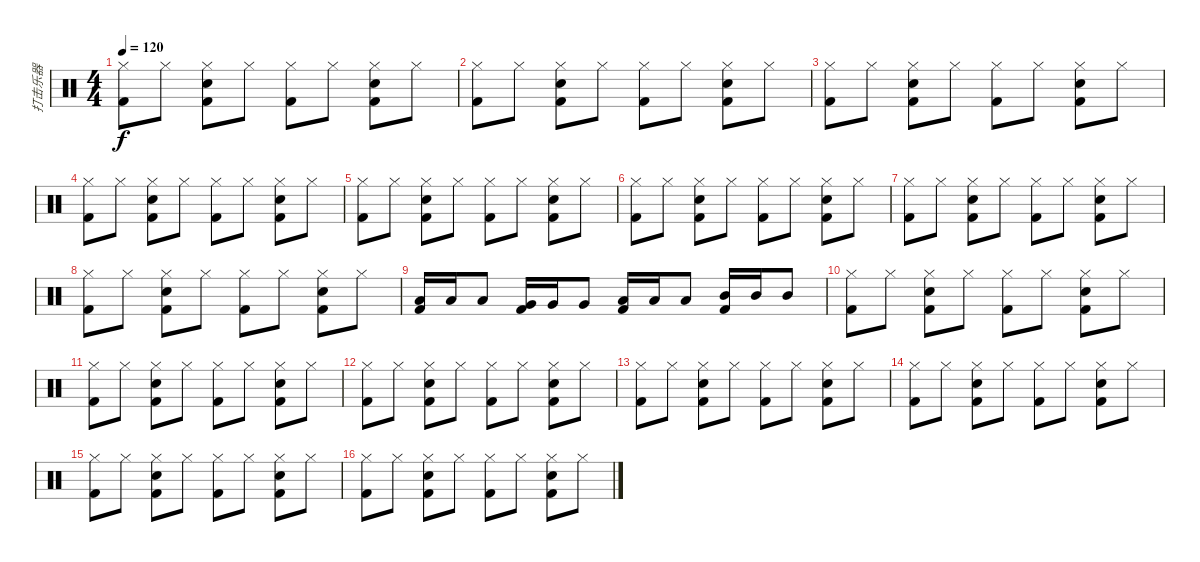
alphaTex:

\track ("打击乐器" "打击乐器") {instrument percussion}
\staff {score}
\articulation defaults
\ts (4 4)
\tempo 120
\clef neutral
\ks c
("Hi-Hat (closed)" "Kick (hit) 2").8{dy f} "Hi-Hat (closed)".8 ("Hi-Hat (closed)" "Snare (hit) 2" "Kick (hit) 2").8 "Hi-Hat (closed)".8 ("Hi-Hat (closed)" "Kick (hit) 2").8 "Hi-Hat (closed)".8 ("Hi-Hat (closed)" "Snare (hit) 2" "Kick (hit) 2").8 "Hi-Hat (closed)".8 |
("Hi-Hat (closed)" "Kick (hit) 2").8 "Hi-Hat (closed)".8 ("Hi-Hat (closed)" "Snare (hit) 2" "Kick (hit) 2").8 "Hi-Hat (closed)".8 ("Hi-Hat (closed)" "Kick (hit) 2").8 "Hi-Hat (closed)".8 ("Hi-Hat (closed)" "Snare (hit) 2" "Kick (hit) 2").8 "Hi-Hat (closed)".8 |
("Hi-Hat (closed)" "Kick (hit) 2").8 "Hi-Hat (closed)".8 ("Hi-Hat (closed)" "Snare (hit) 2" "Kick (hit) 2").8 "Hi-Hat (closed)".8 ("Hi-Hat (closed)" "Kick (hit) 2").8 "Hi-Hat (closed)".8 ("Hi-Hat (closed)" "Snare (hit) 2" "Kick (hit) 2").8 "Hi-Hat (closed)".8 |
("Hi-Hat (closed)" "Kick (hit) 2").8 "Hi-Hat (closed)".8 ("Hi-Hat (closed)" "Snare (hit) 2" "Kick (hit) 2").8 "Hi-Hat (closed)".8 ("Hi-Hat (closed)" "Kick (hit) 2").8 "Hi-Hat (closed)".8 ("Hi-Hat (closed)" "Snare (hit) 2" "Kick (hit) 2").8 "Hi-Hat (closed)".8 |
("Hi-Hat (closed)" "Kick (hit) 2").8 "Hi-Hat (closed)".8 ("Hi-Hat (closed)" "Snare (hit) 2" "Kick (hit) 2").8 "Hi-Hat (closed)".8 ("Hi-Hat (closed)" "Kick (hit) 2").8 "Hi-Hat (closed)".8 ("Hi-Hat (closed)" "Snare (hit) 2" "Kick (hit) 2").8 "Hi-Hat (closed)".8 |
("Hi-Hat (closed)" "Kick (hit) 2").8 "Hi-Hat (closed)".8 ("Hi-Hat (closed)" "Snare (hit) 2" "Kick (hit) 2").8 "Hi-Hat (closed)".8 ("Hi-Hat (closed)" "Kick (hit) 2").8 "Hi-Hat (closed)".8 ("Hi-Hat (closed)" "Snare (hit) 2" "Kick (hit) 2").8 "Hi-Hat (closed)".8 |
("Hi-Hat (closed)" "Kick (hit) 2").8 "Hi-Hat (closed)".8 ("Hi-Hat (closed)" "Snare (hit) 2" "Kick (hit) 2").8 "Hi-Hat (closed)".8 ("Hi-Hat (closed)" "Kick (hit) 2").8 "Hi-Hat (closed)".8 ("Hi-Hat (closed)" "Snare (hit) 2" "Kick (hit) 2").8 "Hi-Hat (closed)".8 |
("Hi-Hat (closed)" "Kick (hit) 2").8 "Hi-Hat (closed)".8 ("Hi-Hat (closed)" "Snare (hit) 2" "Kick (hit) 2").8 "Hi-Hat (closed)".8 ("Hi-Hat (closed)" "Kick (hit) 2").8 "Hi-Hat (closed)".8 ("Hi-Hat (closed)" "Snare (hit) 2" "Kick (hit) 2").8 "Hi-Hat (closed)".8 |
("Low Floor Tom (hit)" "Kick (hit) 2").16 "Low Floor Tom (hit)".16 "Low Floor Tom (hit)".8 ("Very Low Tom (hit)" "Kick (hit) 2").16 "Very Low Tom (hit)".16 "Very Low Tom (hit)".8 ("Low Tom (hit)" "Kick (hit) 2").16 "Low Tom (hit)".16 "Low Tom (hit)".8 ("Mid Tom (hit)" "Kick (hit) 2").16 "Mid Tom (hit)".16 "Mid Tom (hit)".8 |
("Hi-Hat (closed)" "Kick (hit) 2").8 "Hi-Hat (closed)".8 ("Hi-Hat (closed)" "Snare (hit) 2" "Kick (hit) 2").8 "Hi-Hat (closed)".8 ("Hi-Hat (closed)" "Kick (hit) 2").8 "Hi-Hat (closed)".8 ("Hi-Hat (closed)" "Snare (hit) 2" "Kick (hit) 2").8 "Hi-Hat (closed)".8 |
("Hi-Hat (closed)" "Kick (hit) 2").8 "Hi-Hat (closed)".8 ("Hi-Hat (closed)" "Snare (hit) 2" "Kick (hit) 2").8 "Hi-Hat (closed)".8 ("Hi-Hat (closed)" "Kick (hit) 2").8 "Hi-Hat (closed)".8 ("Hi-Hat (closed)" "Snare (hit) 2" "Kick (hit) 2").8 "Hi-Hat (closed)".8 |
("Hi-Hat (closed)" "Kick (hit) 2").8 "Hi-Hat (closed)".8 ("Hi-Hat (closed)" "Snare (hit) 2" "Kick (hit) 2").8 "Hi-Hat (closed)".8 ("Hi-Hat (closed)" "Kick (hit) 2").8 "Hi-Hat (closed)".8 ("Hi-Hat (closed)" "Snare (hit) 2" "Kick (hit) 2").8 "Hi-Hat (closed)".8 |
("Hi-Hat (closed)" "Kick (hit) 2").8 "Hi-Hat (closed)".8 ("Hi-Hat (closed)" "Snare (hit) 2" "Kick (hit) 2").8 "Hi-Hat (closed)".8 ("Hi-Hat (closed)" "Kick (hit) 2").8 "Hi-Hat (closed)".8 ("Hi-Hat (closed)" "Snare (hit) 2" "Kick (hit) 2").8 "Hi-Hat (closed)".8 |
("Hi-Hat (closed)" "Kick (hit) 2").8 "Hi-Hat (closed)".8 ("Hi-Hat (closed)" "Snare (hit) 2" "Kick (hit) 2").8 "Hi-Hat (closed)".8 ("Hi-Hat (closed)" "Kick (hit) 2").8 "Hi-Hat (closed)".8 ("Hi-Hat (closed)" "Snare (hit) 2" "Kick (hit) 2").8 "Hi-Hat (closed)".8 |
("Hi-Hat (closed)" "Kick (hit) 2").8 "Hi-Hat (closed)".8 ("Hi-Hat (closed)" "Snare (hit) 2" "Kick (hit) 2").8 "Hi-Hat (closed)".8 ("Hi-Hat (closed)" "Kick (hit) 2").8 "Hi-Hat (closed)".8 ("Hi-Hat (closed)" "Snare (hit) 2" "Kick (hit) 2").8 "Hi-Hat (closed)".8 |
("Hi-Hat (closed)" "Kick (hit) 2").8 "Hi-Hat (closed)".8 ("Hi-Hat (closed)" "Snare (hit) 2" "Kick (hit) 2").8 "Hi-Hat (closed)".8 ("Hi-Hat (closed)" "Kick (hit) 2").8 "Hi-Hat (closed)".8 ("Hi-Hat (closed)" "Snare (hit) 2" "Kick (hit) 2").8 "Hi-Hat (closed)".8
